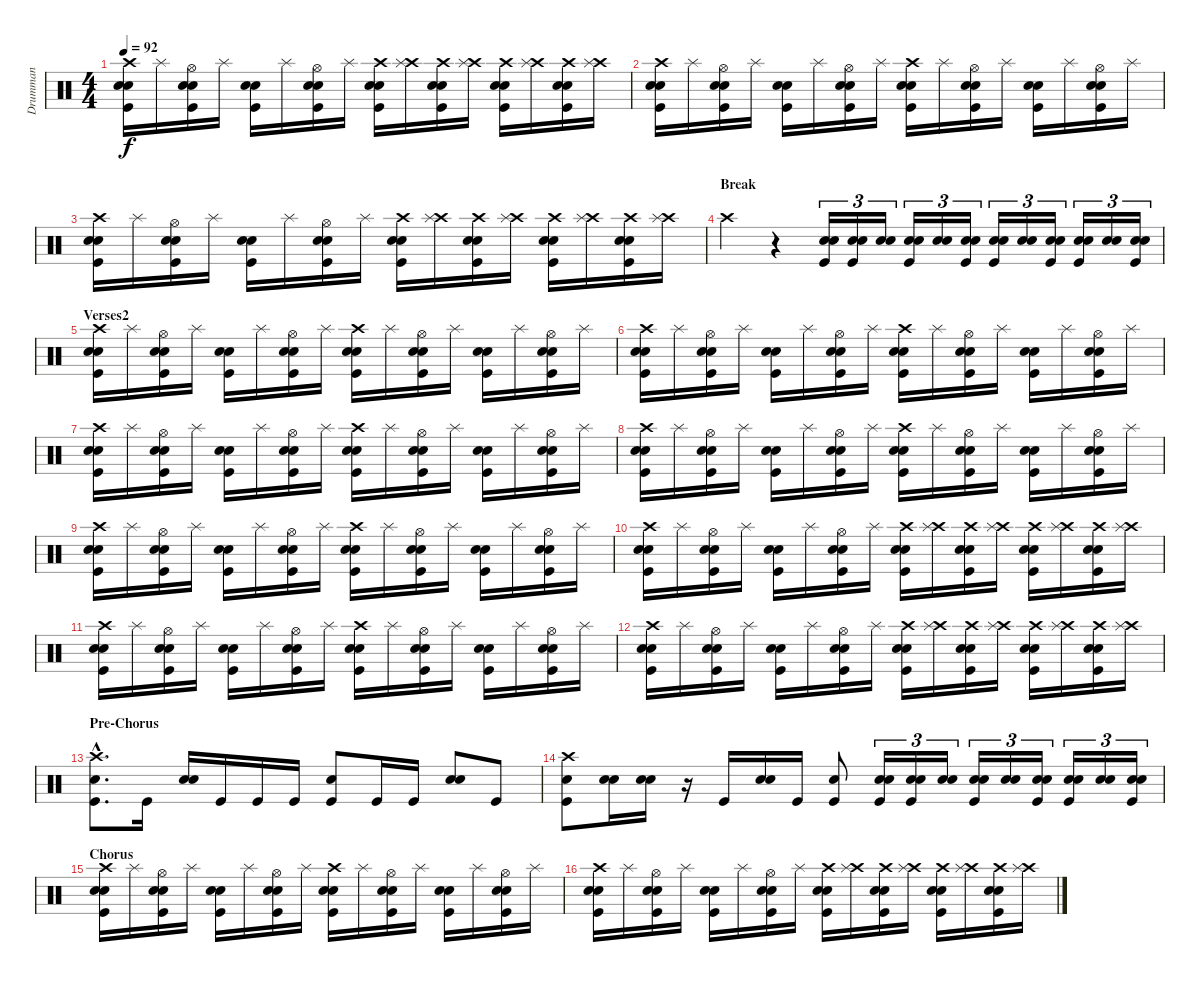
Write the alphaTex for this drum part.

\track ("Drumman" "Drumman") {instrument percussion}
\staff {score}
\articulation defaults
\ts (4 4)
\tempo 92
\clef neutral
\ks c
("Crash high (hit)" "Snare (hit) 2" "Electric Snare (hit)" "Kick (hit)").16{dy f} "Splash (hit)".16 ("Hi-Hat (open)" "Snare (hit) 2" "Electric Snare (hit)" "Kick (hit)").16 "Splash (hit)".16 ("Snare (hit) 2" "Electric Snare (hit)" "Kick (hit)").16 "Splash (hit)".16 ("Hi-Hat (open)" "Snare (hit) 2" "Electric Snare (hit)" "Kick (hit)").16 "Splash (hit)".16 ("Crash high (hit)" "Snare (hit) 2" "Electric Snare (hit)" "Kick (hit)").16 ("Crash high (hit)" "Splash (hit)").16 ("Crash high (hit)" "Snare (hit) 2" "Electric Snare (hit)" "Kick (hit)").16 ("Crash high (hit)" "Splash (hit)").16 ("Crash high (hit)" "Snare (hit) 2" "Electric Snare (hit)" "Kick (hit)").16 ("Crash high (hit)" "Splash (hit)").16 ("Crash high (hit)" "Snare (hit) 2" "Electric Snare (hit)" "Kick (hit)").16 ("Crash high (hit)" "Splash (hit)").16 |
("Crash high (hit)" "Snare (hit) 2" "Electric Snare (hit)" "Kick (hit)").16 "Splash (hit)".16 ("Hi-Hat (open)" "Snare (hit) 2" "Electric Snare (hit)" "Kick (hit)").16 "Splash (hit)".16 ("Snare (hit) 2" "Electric Snare (hit)" "Kick (hit)").16 "Splash (hit)".16 ("Hi-Hat (open)" "Snare (hit) 2" "Electric Snare (hit)" "Kick (hit)").16 "Splash (hit)".16 ("Crash high (hit)" "Snare (hit) 2" "Electric Snare (hit)" "Kick (hit)").16 "Splash (hit)".16 ("Hi-Hat (open)" "Snare (hit) 2" "Electric Snare (hit)" "Kick (hit)").16 "Splash (hit)".16 ("Snare (hit) 2" "Electric Snare (hit)" "Kick (hit)").16 "Splash (hit)".16 ("Hi-Hat (open)" "Snare (hit) 2" "Electric Snare (hit)" "Kick (hit)").16 "Splash (hit)".16 |
("Crash high (hit)" "Snare (hit) 2" "Electric Snare (hit)" "Kick (hit)").16 "Splash (hit)".16 ("Hi-Hat (open)" "Snare (hit) 2" "Electric Snare (hit)" "Kick (hit)").16 "Splash (hit)".16 ("Snare (hit) 2" "Electric Snare (hit)" "Kick (hit)").16 "Splash (hit)".16 ("Hi-Hat (open)" "Snare (hit) 2" "Electric Snare (hit)" "Kick (hit)").16 "Splash (hit)".16 ("Crash high (hit)" "Snare (hit) 2" "Electric Snare (hit)" "Kick (hit)").16 ("Crash high (hit)" "Splash (hit)").16 ("Crash high (hit)" "Snare (hit) 2" "Electric Snare (hit)" "Kick (hit)").16 ("Crash high (hit)" "Splash (hit)").16 ("Crash high (hit)" "Snare (hit) 2" "Electric Snare (hit)" "Kick (hit)").16 ("Crash high (hit)" "Splash (hit)").16 ("Crash high (hit)" "Snare (hit) 2" "Electric Snare (hit)" "Kick (hit)").16 ("Crash high (hit)" "Splash (hit)").16 |
\section ("" "Break")
"Crash high (hit)".4 r.4 ("Snare (hit) 2" "Electric Snare (hit)" "Kick (hit)").16{tu (3 2)} ("Snare (hit) 2" "Electric Snare (hit)" "Kick (hit)").16{tu (3 2)} ("Snare (hit) 2" "Electric Snare (hit)").16{tu (3 2)} ("Snare (hit) 2" "Electric Snare (hit)" "Kick (hit)").16{tu (3 2)} ("Snare (hit) 2" "Electric Snare (hit)").16{tu (3 2)} ("Snare (hit) 2" "Electric Snare (hit)" "Kick (hit)").16{tu (3 2)} ("Snare (hit) 2" "Electric Snare (hit)" "Kick (hit)").16{tu (3 2)} ("Snare (hit) 2" "Electric Snare (hit)").16{tu (3 2)} ("Snare (hit) 2" "Electric Snare (hit)" "Kick (hit)").16{tu (3 2)} ("Snare (hit) 2" "Electric Snare (hit)" "Kick (hit)").16{tu (3 2)} ("Snare (hit) 2" "Electric Snare (hit)").16{tu (3 2)} ("Snare (hit) 2" "Electric Snare (hit)" "Kick (hit)").16{tu (3 2)} |
\section ("" "Verses2")
("Crash high (hit)" "Snare (hit) 2" "Electric Snare (hit)" "Kick (hit)").16 "Splash (hit)".16 ("Hi-Hat (open)" "Snare (hit) 2" "Electric Snare (hit)" "Kick (hit)").16 "Splash (hit)".16 ("Snare (hit) 2" "Electric Snare (hit)" "Kick (hit)").16 "Splash (hit)".16 ("Hi-Hat (open)" "Snare (hit) 2" "Electric Snare (hit)" "Kick (hit)").16 "Splash (hit)".16 ("Crash high (hit)" "Snare (hit) 2" "Electric Snare (hit)" "Kick (hit)").16 "Splash (hit)".16 ("Hi-Hat (open)" "Snare (hit) 2" "Electric Snare (hit)" "Kick (hit)").16 "Splash (hit)".16 ("Snare (hit) 2" "Electric Snare (hit)" "Kick (hit)").16 "Splash (hit)".16 ("Hi-Hat (open)" "Snare (hit) 2" "Electric Snare (hit)" "Kick (hit)").16 "Splash (hit)".16 |
("Crash high (hit)" "Snare (hit) 2" "Electric Snare (hit)" "Kick (hit)").16 "Splash (hit)".16 ("Hi-Hat (open)" "Snare (hit) 2" "Electric Snare (hit)" "Kick (hit)").16 "Splash (hit)".16 ("Snare (hit) 2" "Electric Snare (hit)" "Kick (hit)").16 "Splash (hit)".16 ("Hi-Hat (open)" "Snare (hit) 2" "Electric Snare (hit)" "Kick (hit)").16 "Splash (hit)".16 ("Crash high (hit)" "Snare (hit) 2" "Electric Snare (hit)" "Kick (hit)").16 "Splash (hit)".16 ("Hi-Hat (open)" "Snare (hit) 2" "Electric Snare (hit)" "Kick (hit)").16 "Splash (hit)".16 ("Snare (hit) 2" "Electric Snare (hit)" "Kick (hit)").16 "Splash (hit)".16 ("Hi-Hat (open)" "Snare (hit) 2" "Electric Snare (hit)" "Kick (hit)").16 "Splash (hit)".16 |
("Crash high (hit)" "Snare (hit) 2" "Electric Snare (hit)" "Kick (hit)").16 "Splash (hit)".16 ("Hi-Hat (open)" "Snare (hit) 2" "Electric Snare (hit)" "Kick (hit)").16 "Splash (hit)".16 ("Snare (hit) 2" "Electric Snare (hit)" "Kick (hit)").16 "Splash (hit)".16 ("Hi-Hat (open)" "Snare (hit) 2" "Electric Snare (hit)" "Kick (hit)").16 "Splash (hit)".16 ("Crash high (hit)" "Snare (hit) 2" "Electric Snare (hit)" "Kick (hit)").16 "Splash (hit)".16 ("Hi-Hat (open)" "Snare (hit) 2" "Electric Snare (hit)" "Kick (hit)").16 "Splash (hit)".16 ("Snare (hit) 2" "Electric Snare (hit)" "Kick (hit)").16 "Splash (hit)".16 ("Hi-Hat (open)" "Snare (hit) 2" "Electric Snare (hit)" "Kick (hit)").16 "Splash (hit)".16 |
("Crash high (hit)" "Snare (hit) 2" "Electric Snare (hit)" "Kick (hit)").16 "Splash (hit)".16 ("Hi-Hat (open)" "Snare (hit) 2" "Electric Snare (hit)" "Kick (hit)").16 "Splash (hit)".16 ("Snare (hit) 2" "Electric Snare (hit)" "Kick (hit)").16 "Splash (hit)".16 ("Hi-Hat (open)" "Snare (hit) 2" "Electric Snare (hit)" "Kick (hit)").16 "Splash (hit)".16 ("Crash high (hit)" "Snare (hit) 2" "Electric Snare (hit)" "Kick (hit)").16 "Splash (hit)".16 ("Hi-Hat (open)" "Snare (hit) 2" "Electric Snare (hit)" "Kick (hit)").16 "Splash (hit)".16 ("Snare (hit) 2" "Electric Snare (hit)" "Kick (hit)").16 "Splash (hit)".16 ("Hi-Hat (open)" "Snare (hit) 2" "Electric Snare (hit)" "Kick (hit)").16 "Splash (hit)".16 |
("Crash high (hit)" "Snare (hit) 2" "Electric Snare (hit)" "Kick (hit)").16 "Splash (hit)".16 ("Hi-Hat (open)" "Snare (hit) 2" "Electric Snare (hit)" "Kick (hit)").16 "Splash (hit)".16 ("Snare (hit) 2" "Electric Snare (hit)" "Kick (hit)").16 "Splash (hit)".16 ("Hi-Hat (open)" "Snare (hit) 2" "Electric Snare (hit)" "Kick (hit)").16 "Splash (hit)".16 ("Crash high (hit)" "Snare (hit) 2" "Electric Snare (hit)" "Kick (hit)").16 "Splash (hit)".16 ("Hi-Hat (open)" "Snare (hit) 2" "Electric Snare (hit)" "Kick (hit)").16 "Splash (hit)".16 ("Snare (hit) 2" "Electric Snare (hit)" "Kick (hit)").16 "Splash (hit)".16 ("Hi-Hat (open)" "Snare (hit) 2" "Electric Snare (hit)" "Kick (hit)").16 "Splash (hit)".16 |
("Crash high (hit)" "Snare (hit) 2" "Electric Snare (hit)" "Kick (hit)").16 "Splash (hit)".16 ("Hi-Hat (open)" "Snare (hit) 2" "Electric Snare (hit)" "Kick (hit)").16 "Splash (hit)".16 ("Snare (hit) 2" "Electric Snare (hit)" "Kick (hit)").16 "Splash (hit)".16 ("Hi-Hat (open)" "Snare (hit) 2" "Electric Snare (hit)" "Kick (hit)").16 "Splash (hit)".16 ("Crash high (hit)" "Snare (hit) 2" "Electric Snare (hit)" "Kick (hit)").16 ("Crash high (hit)" "Splash (hit)").16 ("Crash high (hit)" "Snare (hit) 2" "Electric Snare (hit)" "Kick (hit)").16 ("Crash high (hit)" "Splash (hit)").16 ("Crash high (hit)" "Snare (hit) 2" "Electric Snare (hit)" "Kick (hit)").16 ("Crash high (hit)" "Splash (hit)").16 ("Crash high (hit)" "Snare (hit) 2" "Electric Snare (hit)" "Kick (hit)").16 ("Crash high (hit)" "Splash (hit)").16 |
("Crash high (hit)" "Snare (hit) 2" "Electric Snare (hit)" "Kick (hit)").16 "Splash (hit)".16 ("Hi-Hat (open)" "Snare (hit) 2" "Electric Snare (hit)" "Kick (hit)").16 "Splash (hit)".16 ("Snare (hit) 2" "Electric Snare (hit)" "Kick (hit)").16 "Splash (hit)".16 ("Hi-Hat (open)" "Snare (hit) 2" "Electric Snare (hit)" "Kick (hit)").16 "Splash (hit)".16 ("Crash high (hit)" "Snare (hit) 2" "Electric Snare (hit)" "Kick (hit)").16 "Splash (hit)".16 ("Hi-Hat (open)" "Snare (hit) 2" "Electric Snare (hit)" "Kick (hit)").16 "Splash (hit)".16 ("Snare (hit) 2" "Electric Snare (hit)" "Kick (hit)").16 "Splash (hit)".16 ("Hi-Hat (open)" "Snare (hit) 2" "Electric Snare (hit)" "Kick (hit)").16 "Splash (hit)".16 |
("Crash high (hit)" "Snare (hit) 2" "Electric Snare (hit)" "Kick (hit)").16 "Splash (hit)".16 ("Hi-Hat (open)" "Snare (hit) 2" "Electric Snare (hit)" "Kick (hit)").16 "Splash (hit)".16 ("Snare (hit) 2" "Electric Snare (hit)" "Kick (hit)").16 "Splash (hit)".16 ("Hi-Hat (open)" "Snare (hit) 2" "Electric Snare (hit)" "Kick (hit)").16 "Splash (hit)".16 ("Crash high (hit)" "Snare (hit) 2" "Electric Snare (hit)" "Kick (hit)").16 ("Crash high (hit)" "Splash (hit)").16 ("Crash high (hit)" "Snare (hit) 2" "Electric Snare (hit)" "Kick (hit)").16 ("Crash high (hit)" "Splash (hit)").16 ("Crash high (hit)" "Snare (hit) 2" "Electric Snare (hit)" "Kick (hit)").16 ("Crash high (hit)" "Splash (hit)").16 ("Crash high (hit)" "Snare (hit) 2" "Electric Snare (hit)" "Kick (hit)").16 ("Crash high (hit)" "Splash (hit)").16 |
\section ("" "Pre-Chorus")
("Hand Clap (hit)"{hac} "Crash high (hit)"{hac} "Kick (hit)"{hac}).8{d} "Kick (hit)".16 ("Snare (hit) 2" "Electric Snare (hit)").16 "Kick (hit)".16 "Kick (hit)".16 "Kick (hit)".16 ("Hand Clap (hit)" "Kick (hit)").8 "Kick (hit)".16 "Kick (hit)".16 ("Snare (hit) 2" "Electric Snare (hit)").8 "Kick (hit)".8 |
("Hand Clap (hit)" "Crash high (hit)" "Kick (hit)").8 ("Snare (hit) 2" "Electric Snare (hit)").16 ("Snare (hit) 2" "Electric Snare (hit)").16 r.16 "Kick (hit)".16 ("Snare (hit) 2" "Electric Snare (hit)").16 "Kick (hit)".16 ("Hand Clap (hit)" "Kick (hit)").8 ("Snare (hit) 2" "Electric Snare (hit)" "Kick (hit)").16{tu (3 2)} ("Snare (hit) 2" "Electric Snare (hit)" "Kick (hit)").16{tu (3 2)} ("Snare (hit) 2" "Electric Snare (hit)").16{tu (3 2)} ("Snare (hit) 2" "Electric Snare (hit)" "Kick (hit)").16{tu (3 2)} ("Snare (hit) 2" "Electric Snare (hit)").16{tu (3 2)} ("Snare (hit) 2" "Electric Snare (hit)" "Kick (hit)").16{tu (3 2)} ("Snare (hit) 2" "Electric Snare (hit)" "Kick (hit)").16{tu (3 2)} ("Snare (hit) 2" "Electric Snare (hit)").16{tu (3 2)} ("Snare (hit) 2" "Electric Snare (hit)" "Kick (hit)").16{tu (3 2)} |
\section ("" "Chorus")
("Crash high (hit)" "Snare (hit) 2" "Electric Snare (hit)" "Kick (hit)").16 "Splash (hit)".16 ("Hi-Hat (open)" "Snare (hit) 2" "Electric Snare (hit)" "Kick (hit)").16 "Splash (hit)".16 ("Snare (hit) 2" "Electric Snare (hit)" "Kick (hit)").16 "Splash (hit)".16 ("Hi-Hat (open)" "Snare (hit) 2" "Electric Snare (hit)" "Kick (hit)").16 "Splash (hit)".16 ("Crash high (hit)" "Snare (hit) 2" "Electric Snare (hit)" "Kick (hit)").16 "Splash (hit)".16 ("Hi-Hat (open)" "Snare (hit) 2" "Electric Snare (hit)" "Kick (hit)").16 "Splash (hit)".16 ("Snare (hit) 2" "Electric Snare (hit)" "Kick (hit)").16 "Splash (hit)".16 ("Hi-Hat (open)" "Snare (hit) 2" "Electric Snare (hit)" "Kick (hit)").16 "Splash (hit)".16 |
("Crash high (hit)" "Snare (hit) 2" "Electric Snare (hit)" "Kick (hit)").16 "Splash (hit)".16 ("Hi-Hat (open)" "Snare (hit) 2" "Electric Snare (hit)" "Kick (hit)").16 "Splash (hit)".16 ("Snare (hit) 2" "Electric Snare (hit)" "Kick (hit)").16 "Splash (hit)".16 ("Hi-Hat (open)" "Snare (hit) 2" "Electric Snare (hit)" "Kick (hit)").16 "Splash (hit)".16 ("Crash high (hit)" "Snare (hit) 2" "Electric Snare (hit)" "Kick (hit)").16 ("Crash high (hit)" "Splash (hit)").16 ("Crash high (hit)" "Snare (hit) 2" "Electric Snare (hit)" "Kick (hit)").16 ("Crash high (hit)" "Splash (hit)").16 ("Crash high (hit)" "Snare (hit) 2" "Electric Snare (hit)" "Kick (hit)").16 ("Crash high (hit)" "Splash (hit)").16 ("Crash high (hit)" "Snare (hit) 2" "Electric Snare (hit)" "Kick (hit)").16 ("Crash high (hit)" "Splash (hit)").16
